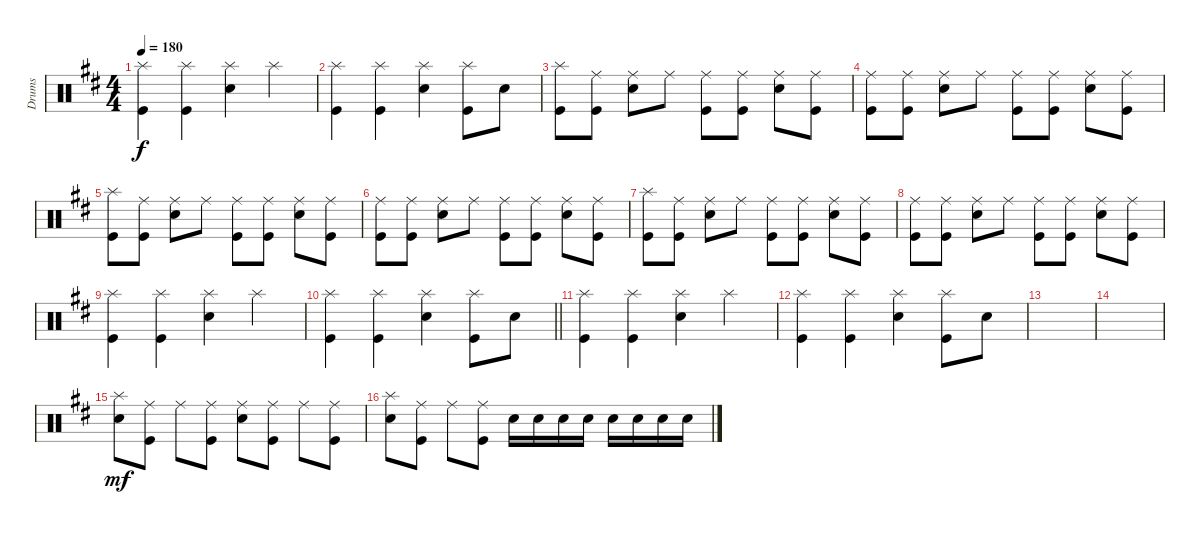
\track ("Drums" "Drums") {instrument percussion}
\staff {score}
\articulation defaults
\ts (4 4)
\tempo 180
\clef neutral
\ks d
("Kick (hit)" "Splash (hit)").4{dy f} ("Kick (hit)" "Splash (hit)").4 ("Snare (hit) 2" "Splash (hit)").4 "Splash (hit)".4 |
("Kick (hit)" "Splash (hit)").4 ("Kick (hit)" "Splash (hit)").4 ("Snare (hit) 2" "Splash (hit)").4 ("Kick (hit)" "Splash (hit)").8 "Snare (hit) 2".8 |
("Kick (hit)" "Splash (hit)").8 ("Kick (hit)" "Ride (middle)").8 ("Snare (hit) 2" "Ride (middle)").8 "Ride (middle)".8 ("Kick (hit)" "Ride (middle)").8 ("Kick (hit)" "Ride (middle)").8 ("Snare (hit) 2" "Ride (middle)").8 ("Kick (hit)" "Ride (middle)").8 |
("Kick (hit)" "Ride (middle)").8 ("Kick (hit)" "Ride (middle)").8 ("Snare (hit) 2" "Ride (middle)").8 "Ride (middle)".8 ("Kick (hit)" "Ride (middle)").8 ("Kick (hit)" "Ride (middle)").8 ("Snare (hit) 2" "Ride (middle)").8 ("Kick (hit)" "Ride (middle)").8 |
("Kick (hit)" "Splash (hit)").8 ("Kick (hit)" "Ride (middle)").8 ("Snare (hit) 2" "Ride (middle)").8 "Ride (middle)".8 ("Kick (hit)" "Ride (middle)").8 ("Kick (hit)" "Ride (middle)").8 ("Snare (hit) 2" "Ride (middle)").8 ("Kick (hit)" "Ride (middle)").8 |
("Kick (hit)" "Ride (middle)").8 ("Kick (hit)" "Ride (middle)").8 ("Snare (hit) 2" "Ride (middle)").8 "Ride (middle)".8 ("Kick (hit)" "Ride (middle)").8 ("Kick (hit)" "Ride (middle)").8 ("Snare (hit) 2" "Ride (middle)").8 ("Kick (hit)" "Ride (middle)").8 |
("Kick (hit)" "Splash (hit)").8 ("Kick (hit)" "Ride (middle)").8 ("Snare (hit) 2" "Ride (middle)").8 "Ride (middle)".8 ("Kick (hit)" "Ride (middle)").8 ("Kick (hit)" "Ride (middle)").8 ("Snare (hit) 2" "Ride (middle)").8 ("Kick (hit)" "Ride (middle)").8 |
("Kick (hit)" "Ride (middle)").8 ("Kick (hit)" "Ride (middle)").8 ("Snare (hit) 2" "Ride (middle)").8 "Ride (middle)".8 ("Kick (hit)" "Ride (middle)").8 ("Kick (hit)" "Ride (middle)").8 ("Snare (hit) 2" "Ride (middle)").8 ("Kick (hit)" "Ride (middle)").8 |
("Kick (hit)" "Splash (hit)").4 ("Kick (hit)" "Splash (hit)").4 ("Snare (hit) 2" "Splash (hit)").4 "Splash (hit)".4 |
\barLineRight lightlight
("Kick (hit)" "Splash (hit)").4 ("Kick (hit)" "Splash (hit)").4 ("Snare (hit) 2" "Splash (hit)").4 ("Kick (hit)" "Splash (hit)").8 "Snare (hit) 2".8 |
("Kick (hit)" "Splash (hit)").4 ("Kick (hit)" "Splash (hit)").4 ("Snare (hit) 2" "Splash (hit)").4 "Splash (hit)".4 |
("Kick (hit)" "Splash (hit)").4 ("Kick (hit)" "Splash (hit)").4 ("Snare (hit) 2" "Splash (hit)").4 ("Kick (hit)" "Splash (hit)").8 "Snare (hit) 2".8 |
|
|
("Snare (hit) 2" "Splash (hit)").8{dy mf} ("Kick (hit)" "Ride (middle)").8 "Ride (middle)".8 ("Kick (hit)" "Ride (middle)").8 ("Ride (middle)" "Snare (hit) 2").8 ("Kick (hit)" "Ride (middle)").8 "Ride (middle)".8 ("Ride (middle)" "Kick (hit)").8 |
("Snare (hit) 2" "Splash (hit)").8 ("Kick (hit)" "Ride (middle)").8 "Ride (middle)".8 ("Kick (hit)" "Ride (middle)").8 "Snare (hit) 2".16 "Snare (hit) 2".16 "Snare (hit) 2".16 "Snare (hit) 2".16 "Snare (hit) 2".16 "Snare (hit) 2".16 "Snare (hit) 2".16 "Snare (hit) 2".16
